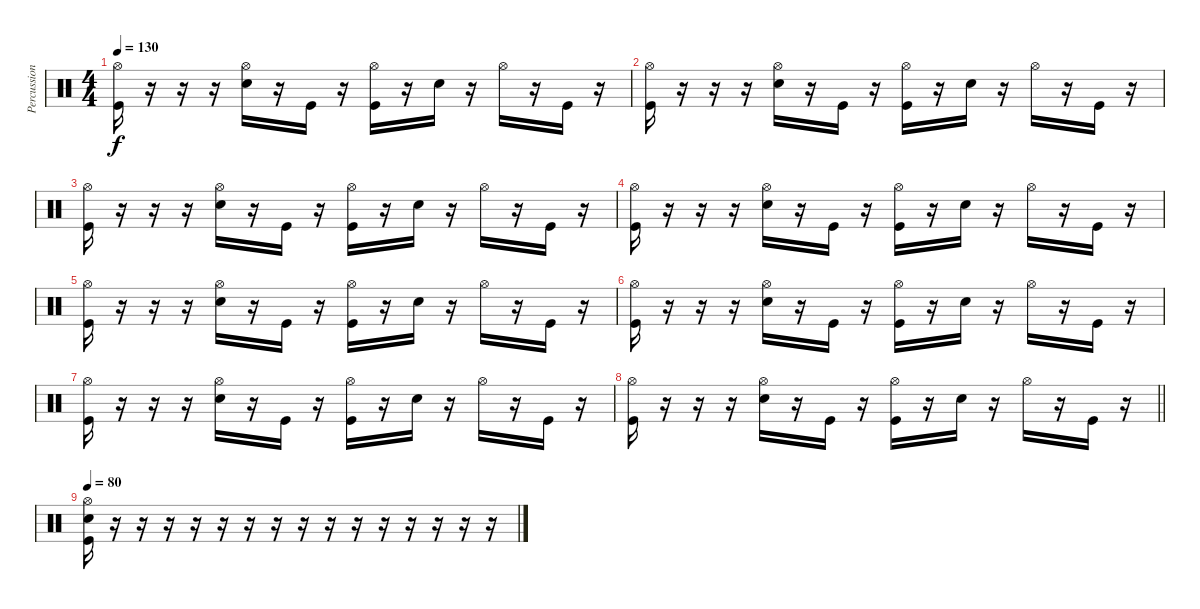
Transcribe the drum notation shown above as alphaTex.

\track ("Percussion" "Percussion") {instrument percussion}
\staff {score}
\articulation defaults
\ts (4 4)
\tempo 130
\clef neutral
\ks c
("Hi-Hat (open)" "Kick (hit)").16{dy f} r.16 r.16 r.16 ("Hi-Hat (open)" "Electric Snare (hit)").16 r.16 "Kick (hit)".16 r.16 ("Hi-Hat (open)" "Kick (hit)").16 r.16 "Electric Snare (hit)".16 r.16 "Hi-Hat (open)".16 r.16 "Kick (hit)".16 r.16 |
("Hi-Hat (open)" "Kick (hit)").16 r.16 r.16 r.16 ("Hi-Hat (open)" "Electric Snare (hit)").16 r.16 "Kick (hit)".16 r.16 ("Hi-Hat (open)" "Kick (hit)").16 r.16 "Electric Snare (hit)".16 r.16 "Hi-Hat (open)".16 r.16 "Kick (hit)".16 r.16 |
("Hi-Hat (open)" "Kick (hit)").16 r.16 r.16 r.16 ("Hi-Hat (open)" "Electric Snare (hit)").16 r.16 "Kick (hit)".16 r.16 ("Hi-Hat (open)" "Kick (hit)").16 r.16 "Electric Snare (hit)".16 r.16 "Hi-Hat (open)".16 r.16 "Kick (hit)".16 r.16 |
("Hi-Hat (open)" "Kick (hit)").16 r.16 r.16 r.16 ("Hi-Hat (open)" "Electric Snare (hit)").16 r.16 "Kick (hit)".16 r.16 ("Hi-Hat (open)" "Kick (hit)").16 r.16 "Electric Snare (hit)".16 r.16 "Hi-Hat (open)".16 r.16 "Kick (hit)".16 r.16 |
("Hi-Hat (open)" "Kick (hit)").16 r.16 r.16 r.16 ("Hi-Hat (open)" "Electric Snare (hit)").16 r.16 "Kick (hit)".16 r.16 ("Hi-Hat (open)" "Kick (hit)").16 r.16 "Electric Snare (hit)".16 r.16 "Hi-Hat (open)".16 r.16 "Kick (hit)".16 r.16 |
("Hi-Hat (open)" "Kick (hit)").16 r.16 r.16 r.16 ("Hi-Hat (open)" "Electric Snare (hit)").16 r.16 "Kick (hit)".16 r.16 ("Hi-Hat (open)" "Kick (hit)").16 r.16 "Electric Snare (hit)".16 r.16 "Hi-Hat (open)".16 r.16 "Kick (hit)".16 r.16 |
("Hi-Hat (open)" "Kick (hit)").16 r.16 r.16 r.16 ("Hi-Hat (open)" "Electric Snare (hit)").16 r.16 "Kick (hit)".16 r.16 ("Hi-Hat (open)" "Kick (hit)").16 r.16 "Electric Snare (hit)".16 r.16 "Hi-Hat (open)".16 r.16 "Kick (hit)".16 r.16 |
\barLineRight lightlight
("Hi-Hat (open)" "Kick (hit)").16 r.16 r.16 r.16 ("Hi-Hat (open)" "Electric Snare (hit)").16 r.16 "Kick (hit)".16 r.16 ("Hi-Hat (open)" "Kick (hit)").16 r.16 "Electric Snare (hit)".16 r.16 "Hi-Hat (open)".16 r.16 "Kick (hit)".16 r.16 |
\tempo 80
("Hi-Hat (open)" "Electric Snare (hit)" "Kick (hit)").16 r.16 r.16 r.16 r.16 r.16 r.16 r.16 r.16 r.16 r.16 r.16 r.16 r.16 r.16 r.16
